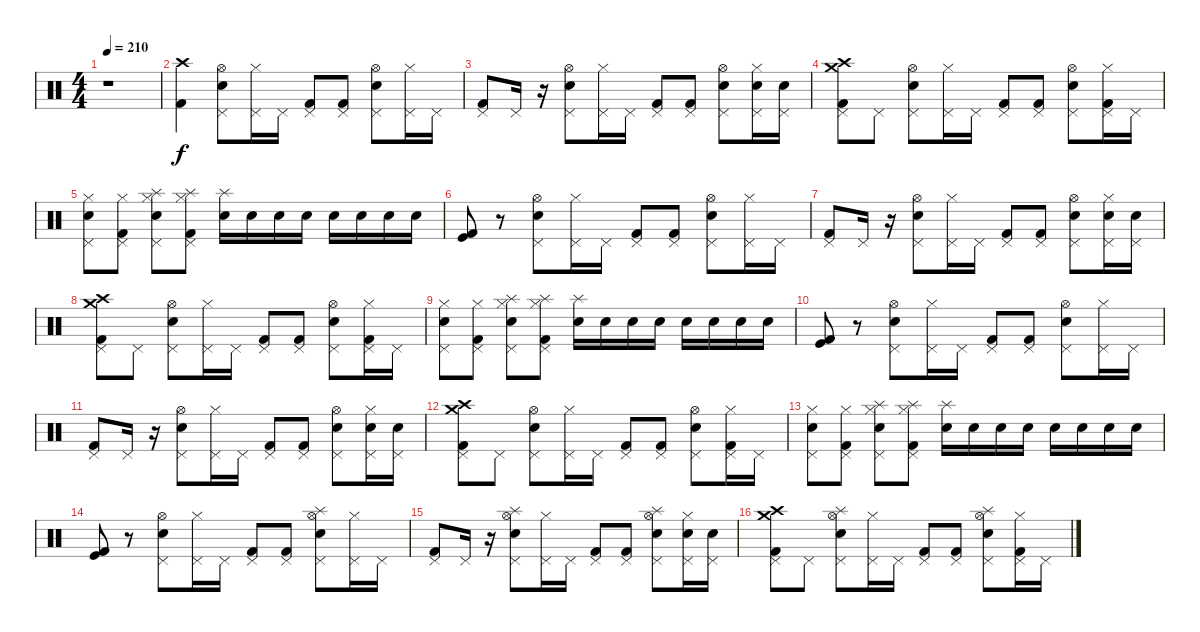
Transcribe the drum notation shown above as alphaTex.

\track "" {instrument percussion}
\staff {score}
\articulation defaults
\ts (4 4)
\tempo 210
\clef neutral
\ks c
r.1{dy f} |
("Crash high (hit)" "Kick (hit) 2").4 ("Pedal Hi-Hat (hit)" "Hi-Hat (open)" "Electric Snare (hit)").8 ("Pedal Hi-Hat (hit)" "Hi-Hat (closed)").16 "Pedal Hi-Hat (hit)".16 ("Pedal Hi-Hat (hit)" "Kick (hit) 2").8 ("Pedal Hi-Hat (hit)" "Kick (hit) 2").8 ("Pedal Hi-Hat (hit)" "Hi-Hat (open)" "Electric Snare (hit)").8 ("Pedal Hi-Hat (hit)" "Hi-Hat (closed)").16 "Pedal Hi-Hat (hit)".16 |
("Pedal Hi-Hat (hit)" "Kick (hit) 2").8 "Pedal Hi-Hat (hit)".16 r.16 ("Pedal Hi-Hat (hit)" "Hi-Hat (open)" "Electric Snare (hit)").8 ("Pedal Hi-Hat (hit)" "Hi-Hat (closed)").16 "Pedal Hi-Hat (hit)".16 ("Pedal Hi-Hat (hit)" "Kick (hit) 2").8 ("Pedal Hi-Hat (hit)" "Kick (hit) 2").8 ("Pedal Hi-Hat (hit)" "Hi-Hat (open)" "Electric Snare (hit)").8 ("Pedal Hi-Hat (hit)" "Hi-Hat (closed)" "Electric Snare (hit)").16 ("Pedal Hi-Hat (hit)" "Electric Snare (hit)").16 |
("Pedal Hi-Hat (hit)" "Crash high (hit)" "Crash medium (hit)" "Kick (hit) 2").8 "Pedal Hi-Hat (hit)".8 ("Pedal Hi-Hat (hit)" "Hi-Hat (open)" "Electric Snare (hit)").8 ("Pedal Hi-Hat (hit)" "Hi-Hat (closed)").16 "Pedal Hi-Hat (hit)".16 ("Pedal Hi-Hat (hit)" "Kick (hit) 2").8 ("Pedal Hi-Hat (hit)" "Kick (hit) 2").8 ("Pedal Hi-Hat (hit)" "Hi-Hat (open)" "Electric Snare (hit)").8 ("Pedal Hi-Hat (hit)" "Hi-Hat (closed)" "Kick (hit) 2").16 "Pedal Hi-Hat (hit)".16 |
("Pedal Hi-Hat (hit)" "Hi-Hat (closed)" "Electric Snare (hit)").8 ("Pedal Hi-Hat (hit)" "Hi-Hat (closed)" "Kick (hit) 2").8 ("Splash (hit)" "Pedal Hi-Hat (hit)" "Hi-Hat (closed)" "Electric Snare (hit)").8 ("Splash (hit)" "Pedal Hi-Hat (hit)" "Hi-Hat (closed)" "Kick (hit) 2").8 ("Splash (hit)" "Electric Snare (hit)").16 "Electric Snare (hit)".16 "Electric Snare (hit)".16 "Electric Snare (hit)".16 "Electric Snare (hit)".16 "Electric Snare (hit)".16 "Electric Snare (hit)".16 "Electric Snare (hit)".16 |
("Kick (hit)" "Kick (hit) 2").8 r.8 ("Pedal Hi-Hat (hit)" "Hi-Hat (open)" "Electric Snare (hit)").8 ("Pedal Hi-Hat (hit)" "Hi-Hat (closed)").16 "Pedal Hi-Hat (hit)".16 ("Pedal Hi-Hat (hit)" "Kick (hit) 2").8 ("Pedal Hi-Hat (hit)" "Kick (hit) 2").8 ("Pedal Hi-Hat (hit)" "Hi-Hat (open)" "Electric Snare (hit)").8 ("Pedal Hi-Hat (hit)" "Hi-Hat (closed)").16 "Pedal Hi-Hat (hit)".16 |
("Pedal Hi-Hat (hit)" "Kick (hit) 2").8 "Pedal Hi-Hat (hit)".16 r.16 ("Pedal Hi-Hat (hit)" "Hi-Hat (open)" "Electric Snare (hit)").8 ("Pedal Hi-Hat (hit)" "Hi-Hat (closed)").16 "Pedal Hi-Hat (hit)".16 ("Pedal Hi-Hat (hit)" "Kick (hit) 2").8 ("Pedal Hi-Hat (hit)" "Kick (hit) 2").8 ("Pedal Hi-Hat (hit)" "Hi-Hat (open)" "Electric Snare (hit)").8 ("Pedal Hi-Hat (hit)" "Hi-Hat (closed)" "Electric Snare (hit)").16 ("Pedal Hi-Hat (hit)" "Electric Snare (hit)").16 |
("Pedal Hi-Hat (hit)" "Crash high (hit)" "Crash medium (hit)" "Kick (hit) 2").8 "Pedal Hi-Hat (hit)".8 ("Pedal Hi-Hat (hit)" "Hi-Hat (open)" "Electric Snare (hit)").8 ("Pedal Hi-Hat (hit)" "Hi-Hat (closed)").16 "Pedal Hi-Hat (hit)".16 ("Pedal Hi-Hat (hit)" "Kick (hit) 2").8 ("Pedal Hi-Hat (hit)" "Kick (hit) 2").8 ("Pedal Hi-Hat (hit)" "Hi-Hat (open)" "Electric Snare (hit)").8 ("Pedal Hi-Hat (hit)" "Hi-Hat (closed)" "Kick (hit) 2").16 "Pedal Hi-Hat (hit)".16 |
("Pedal Hi-Hat (hit)" "Hi-Hat (closed)" "Electric Snare (hit)").8 ("Pedal Hi-Hat (hit)" "Hi-Hat (closed)" "Kick (hit) 2").8 ("Splash (hit)" "Pedal Hi-Hat (hit)" "Hi-Hat (closed)" "Electric Snare (hit)").8 ("Splash (hit)" "Pedal Hi-Hat (hit)" "Hi-Hat (closed)" "Kick (hit) 2").8 ("Splash (hit)" "Electric Snare (hit)").16 "Electric Snare (hit)".16 "Electric Snare (hit)".16 "Electric Snare (hit)".16 "Electric Snare (hit)".16 "Electric Snare (hit)".16 "Electric Snare (hit)".16 "Electric Snare (hit)".16 |
("Kick (hit)" "Kick (hit) 2").8 r.8 ("Pedal Hi-Hat (hit)" "Hi-Hat (open)" "Electric Snare (hit)").8 ("Pedal Hi-Hat (hit)" "Hi-Hat (closed)").16 "Pedal Hi-Hat (hit)".16 ("Pedal Hi-Hat (hit)" "Kick (hit) 2").8 ("Pedal Hi-Hat (hit)" "Kick (hit) 2").8 ("Pedal Hi-Hat (hit)" "Hi-Hat (open)" "Electric Snare (hit)").8 ("Pedal Hi-Hat (hit)" "Hi-Hat (closed)").16 "Pedal Hi-Hat (hit)".16 |
("Pedal Hi-Hat (hit)" "Kick (hit) 2").8 "Pedal Hi-Hat (hit)".16 r.16 ("Pedal Hi-Hat (hit)" "Hi-Hat (open)" "Electric Snare (hit)").8 ("Pedal Hi-Hat (hit)" "Hi-Hat (closed)").16 "Pedal Hi-Hat (hit)".16 ("Pedal Hi-Hat (hit)" "Kick (hit) 2").8 ("Pedal Hi-Hat (hit)" "Kick (hit) 2").8 ("Pedal Hi-Hat (hit)" "Hi-Hat (open)" "Electric Snare (hit)").8 ("Pedal Hi-Hat (hit)" "Hi-Hat (closed)" "Electric Snare (hit)").16 ("Pedal Hi-Hat (hit)" "Electric Snare (hit)").16 |
("Pedal Hi-Hat (hit)" "Crash high (hit)" "Crash medium (hit)" "Kick (hit) 2").8 "Pedal Hi-Hat (hit)".8 ("Pedal Hi-Hat (hit)" "Hi-Hat (open)" "Electric Snare (hit)").8 ("Pedal Hi-Hat (hit)" "Hi-Hat (closed)").16 "Pedal Hi-Hat (hit)".16 ("Pedal Hi-Hat (hit)" "Kick (hit) 2").8 ("Pedal Hi-Hat (hit)" "Kick (hit) 2").8 ("Pedal Hi-Hat (hit)" "Hi-Hat (open)" "Electric Snare (hit)").8 ("Pedal Hi-Hat (hit)" "Hi-Hat (closed)" "Kick (hit) 2").16 "Pedal Hi-Hat (hit)".16 |
("Pedal Hi-Hat (hit)" "Hi-Hat (closed)" "Electric Snare (hit)").8 ("Pedal Hi-Hat (hit)" "Hi-Hat (closed)" "Kick (hit) 2").8 ("Splash (hit)" "Pedal Hi-Hat (hit)" "Hi-Hat (closed)" "Electric Snare (hit)").8 ("Splash (hit)" "Pedal Hi-Hat (hit)" "Hi-Hat (closed)" "Kick (hit) 2").8 ("Splash (hit)" "Electric Snare (hit)").16 "Electric Snare (hit)".16 "Electric Snare (hit)".16 "Electric Snare (hit)".16 "Electric Snare (hit)".16 "Electric Snare (hit)".16 "Electric Snare (hit)".16 "Electric Snare (hit)".16 |
("Kick (hit)" "Kick (hit) 2").8 r.8 ("Pedal Hi-Hat (hit)" "Hi-Hat (open)" "Electric Snare (hit)").8 ("Pedal Hi-Hat (hit)" "Hi-Hat (closed)").16 "Pedal Hi-Hat (hit)".16 ("Pedal Hi-Hat (hit)" "Kick (hit) 2").8 ("Pedal Hi-Hat (hit)" "Kick (hit) 2").8 ("Splash (hit)" "Pedal Hi-Hat (hit)" "Hi-Hat (open)" "Electric Snare (hit)").8 ("Pedal Hi-Hat (hit)" "Hi-Hat (closed)").16 "Pedal Hi-Hat (hit)".16 |
("Pedal Hi-Hat (hit)" "Kick (hit) 2").8 "Pedal Hi-Hat (hit)".16 r.16 ("Splash (hit)" "Pedal Hi-Hat (hit)" "Hi-Hat (open)" "Electric Snare (hit)").8 ("Pedal Hi-Hat (hit)" "Hi-Hat (closed)").16 "Pedal Hi-Hat (hit)".16 ("Pedal Hi-Hat (hit)" "Kick (hit) 2").8 ("Pedal Hi-Hat (hit)" "Kick (hit) 2").8 ("Splash (hit)" "Pedal Hi-Hat (hit)" "Hi-Hat (open)" "Electric Snare (hit)").8 ("Pedal Hi-Hat (hit)" "Hi-Hat (closed)" "Electric Snare (hit)").16 ("Pedal Hi-Hat (hit)" "Electric Snare (hit)").16 |
("Pedal Hi-Hat (hit)" "Crash high (hit)" "Crash medium (hit)" "Kick (hit) 2").8 "Pedal Hi-Hat (hit)".8 ("Splash (hit)" "Pedal Hi-Hat (hit)" "Hi-Hat (open)" "Electric Snare (hit)").8 ("Pedal Hi-Hat (hit)" "Hi-Hat (closed)").16 "Pedal Hi-Hat (hit)".16 ("Pedal Hi-Hat (hit)" "Kick (hit) 2").8 ("Pedal Hi-Hat (hit)" "Kick (hit) 2").8 ("Splash (hit)" "Pedal Hi-Hat (hit)" "Hi-Hat (open)" "Electric Snare (hit)").8 ("Pedal Hi-Hat (hit)" "Hi-Hat (closed)" "Kick (hit) 2").16 "Pedal Hi-Hat (hit)".16
